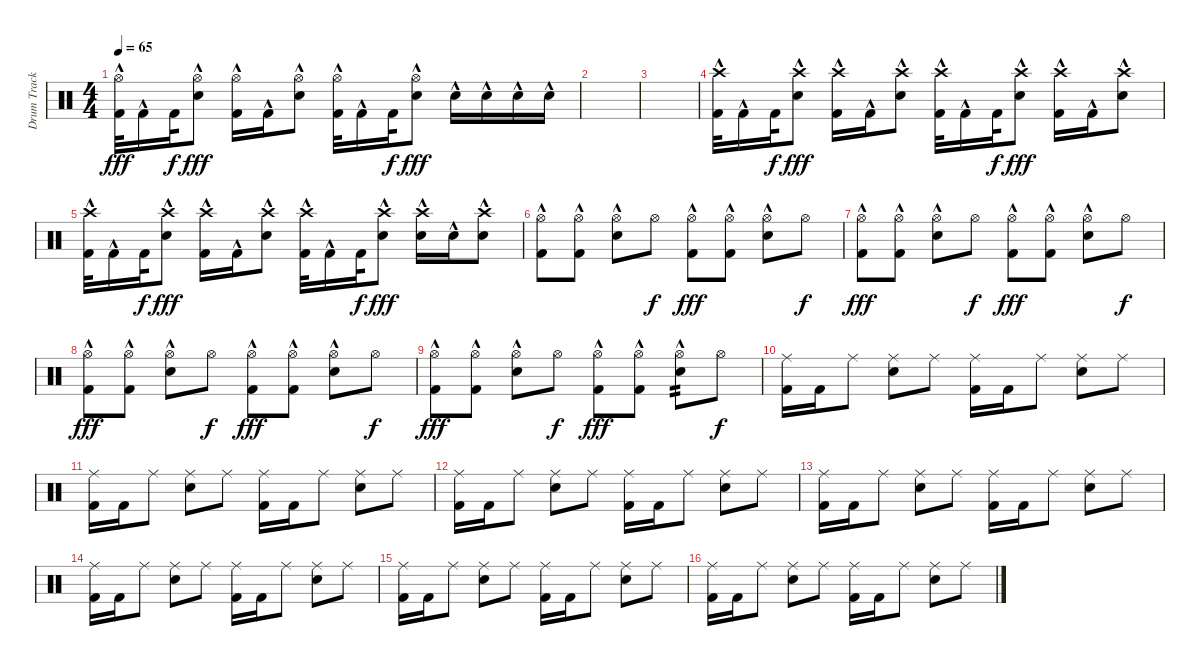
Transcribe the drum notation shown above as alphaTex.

\track ("Drum Track" "Drum Track") {instrument percussion}
\staff {score}
\articulation defaults
\ts (4 4)
\tempo 65
\clef neutral
\ks c
("Hi-Hat (open)" "Kick (hit) 2"{hac}).32{dy fff} "Kick (hit) 2"{hac}.16 "Kick (hit) 2".32{dy f} ("Hi-Hat (open)" "Electric Snare (hit)"{hac}).8{dy fff} ("Hi-Hat (open)" "Kick (hit) 2"{hac}).16 "Kick (hit) 2"{hac}.16 ("Hi-Hat (open)" "Electric Snare (hit)"{hac}).8 ("Hi-Hat (open)" "Kick (hit) 2"{hac}).32 "Kick (hit) 2"{hac}.16 "Kick (hit) 2".32{dy f} ("Hi-Hat (open)" "Electric Snare (hit)"{hac}).8{dy fff} "Electric Snare (hit)"{hac}.16 "Electric Snare (hit)"{hac}.16 "Electric Snare (hit)"{hac}.16 "Electric Snare (hit)"{hac}.16 |
|
|
("Crash high (hit)" "Kick (hit) 2"{hac}).32 "Kick (hit) 2"{hac}.16 "Kick (hit) 2".32{dy f} ("Crash high (hit)" "Electric Snare (hit)"{hac}).8{dy fff} ("Crash high (hit)" "Kick (hit) 2"{hac}).16 "Kick (hit) 2"{hac}.16 ("Crash high (hit)" "Electric Snare (hit)"{hac}).8 ("Crash high (hit)" "Kick (hit) 2"{hac}).32 "Kick (hit) 2"{hac}.16 "Kick (hit) 2".32{dy f} ("Crash high (hit)" "Electric Snare (hit)"{hac}).8{dy fff} ("Crash high (hit)" "Kick (hit) 2"{hac}).16 "Kick (hit) 2"{hac}.16 ("Crash high (hit)" "Electric Snare (hit)"{hac}).8 |
("Crash high (hit)" "Kick (hit) 2"{hac}).32 "Kick (hit) 2"{hac}.16 "Kick (hit) 2".32{dy f} ("Crash high (hit)" "Electric Snare (hit)"{hac}).8{dy fff} ("Crash high (hit)" "Kick (hit) 2"{hac}).16 "Kick (hit) 2"{hac}.16 ("Crash high (hit)" "Electric Snare (hit)"{hac}).8 ("Crash high (hit)" "Kick (hit) 2"{hac}).32 "Kick (hit) 2"{hac}.16 "Kick (hit) 2".32{dy f} ("Crash high (hit)" "Electric Snare (hit)"{hac}).8{dy fff} ("Crash high (hit)" "Electric Snare (hit)"{hac}).16 "Electric Snare (hit)"{hac}.16 ("Crash high (hit)" "Electric Snare (hit)"{hac}).8 |
("Hi-Hat (open)" "Kick (hit) 2"{hac}).8 ("Hi-Hat (open)" "Kick (hit) 2"{hac}).8 ("Hi-Hat (open)" "Electric Snare (hit)"{hac}).8 "Hi-Hat (open)".8{dy f} ("Hi-Hat (open)" "Kick (hit) 2"{hac}).8{dy fff} ("Hi-Hat (open)" "Kick (hit) 2"{hac}).8 ("Hi-Hat (open)" "Electric Snare (hit)"{hac}).8 "Hi-Hat (open)".8{dy f} |
("Hi-Hat (open)" "Kick (hit) 2"{hac}).8{dy fff} ("Hi-Hat (open)" "Kick (hit) 2"{hac}).8 ("Hi-Hat (open)" "Electric Snare (hit)"{hac}).8 "Hi-Hat (open)".8{dy f} ("Hi-Hat (open)" "Kick (hit) 2"{hac}).8{dy fff} ("Hi-Hat (open)" "Kick (hit) 2"{hac}).8 ("Hi-Hat (open)" "Electric Snare (hit)"{hac}).8 "Hi-Hat (open)".8{dy f} |
("Hi-Hat (open)" "Kick (hit) 2"{hac}).8{dy fff} ("Hi-Hat (open)" "Kick (hit) 2"{hac}).8 ("Hi-Hat (open)" "Electric Snare (hit)"{hac}).8 "Hi-Hat (open)".8{dy f} ("Hi-Hat (open)" "Kick (hit) 2"{hac}).8{dy fff} ("Hi-Hat (open)" "Kick (hit) 2"{hac}).8 ("Hi-Hat (open)" "Electric Snare (hit)"{hac}).8 "Hi-Hat (open)".8{dy f} |
("Hi-Hat (open)" "Kick (hit) 2"{hac}).8{dy fff} ("Hi-Hat (open)" "Kick (hit) 2"{hac}).8 ("Hi-Hat (open)" "Electric Snare (hit)"{hac}).8 "Hi-Hat (open)".8{dy f} ("Hi-Hat (open)" "Kick (hit) 2"{hac}).8{dy fff} ("Hi-Hat (open)" "Kick (hit) 2"{hac}).8 ("Hi-Hat (open)" "Electric Snare (hit)"{hac}).8{tp 2} "Hi-Hat (open)".8{dy f} |
("Ride (middle)" "Kick (hit) 2").16 "Kick (hit) 2".16 "Ride (middle)".8 ("Ride (middle)" "Electric Snare (hit)").8 "Ride (middle)".8 ("Ride (middle)" "Kick (hit) 2").16 "Kick (hit) 2".16 "Ride (middle)".8 ("Ride (middle)" "Electric Snare (hit)").8 "Ride (middle)".8 |
("Ride (middle)" "Kick (hit) 2").16 "Kick (hit) 2".16 "Ride (middle)".8 ("Ride (middle)" "Electric Snare (hit)").8 "Ride (middle)".8 ("Ride (middle)" "Kick (hit) 2").16 "Kick (hit) 2".16 "Ride (middle)".8 ("Ride (middle)" "Electric Snare (hit)").8 "Ride (middle)".8 |
("Ride (middle)" "Kick (hit) 2").16 "Kick (hit) 2".16 "Ride (middle)".8 ("Ride (middle)" "Electric Snare (hit)").8 "Ride (middle)".8 ("Ride (middle)" "Kick (hit) 2").16 "Kick (hit) 2".16 "Ride (middle)".8 ("Ride (middle)" "Electric Snare (hit)").8 "Ride (middle)".8 |
("Ride (middle)" "Kick (hit) 2").16 "Kick (hit) 2".16 "Ride (middle)".8 ("Ride (middle)" "Electric Snare (hit)").8 "Ride (middle)".8 ("Ride (middle)" "Kick (hit) 2").16 "Kick (hit) 2".16 "Ride (middle)".8 ("Ride (middle)" "Electric Snare (hit)").8 "Ride (middle)".8 |
("Ride (middle)" "Kick (hit) 2").16 "Kick (hit) 2".16 "Ride (middle)".8 ("Ride (middle)" "Electric Snare (hit)").8 "Ride (middle)".8 ("Ride (middle)" "Kick (hit) 2").16 "Kick (hit) 2".16 "Ride (middle)".8 ("Ride (middle)" "Electric Snare (hit)").8 "Ride (middle)".8 |
("Ride (middle)" "Kick (hit) 2").16 "Kick (hit) 2".16 "Ride (middle)".8 ("Ride (middle)" "Electric Snare (hit)").8 "Ride (middle)".8 ("Ride (middle)" "Kick (hit) 2").16 "Kick (hit) 2".16 "Ride (middle)".8 ("Ride (middle)" "Electric Snare (hit)").8 "Ride (middle)".8 |
("Ride (middle)" "Kick (hit) 2").16 "Kick (hit) 2".16 "Ride (middle)".8 ("Ride (middle)" "Electric Snare (hit)").8 "Ride (middle)".8 ("Ride (middle)" "Kick (hit) 2").16 "Kick (hit) 2".16 "Ride (middle)".8 ("Ride (middle)" "Electric Snare (hit)").8 "Ride (middle)".8
